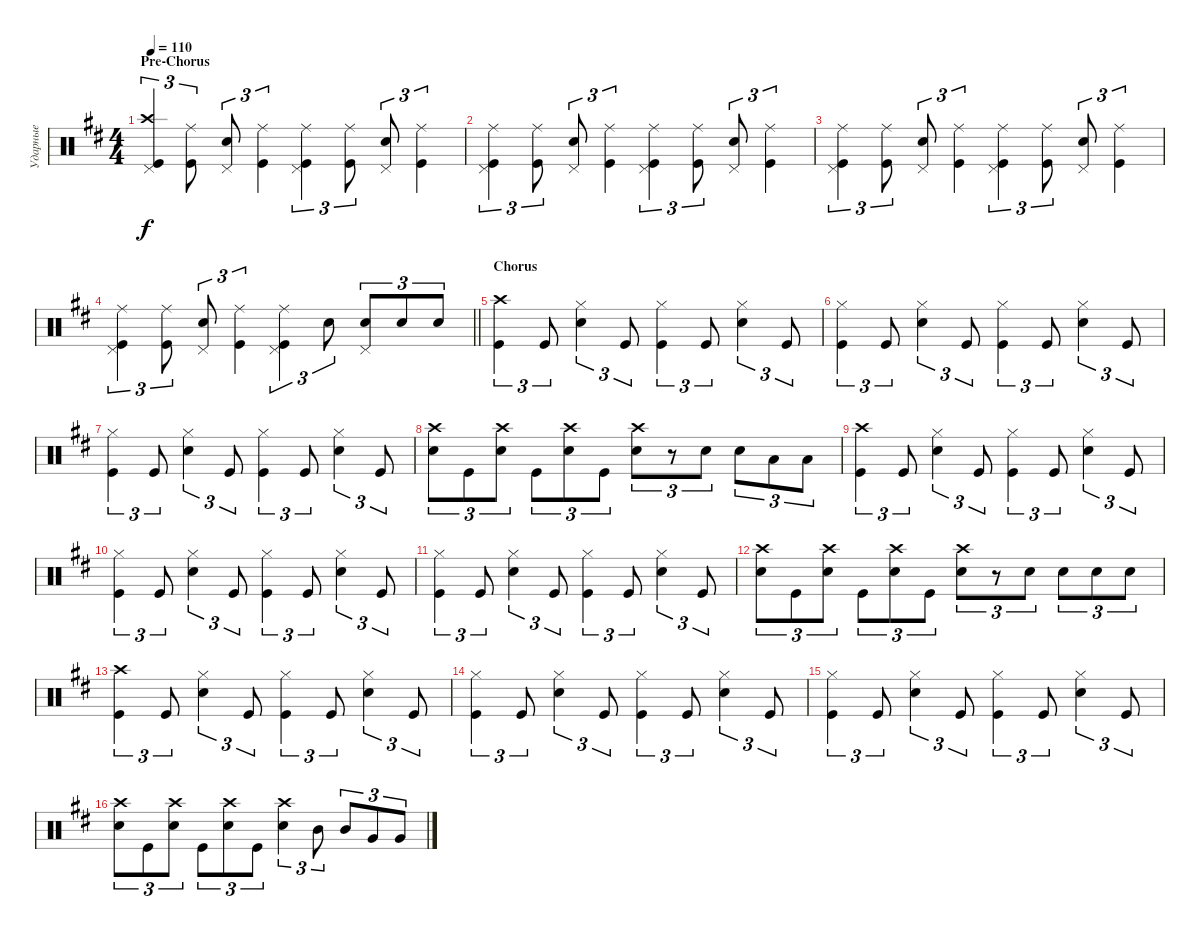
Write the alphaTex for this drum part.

\track ("Ударные" "Ударные") {instrument percussion}
\staff {score}
\articulation defaults
\ts (4 4)
\section ("" "Pre-Chorus")
\tempo 110
\clef neutral
\ks bminor
("Kick (hit)" "Crash high (hit)" "Pedal Hi-Hat (hit)").4{tu (3 2) dy f} ("Kick (hit)" "Ride (middle)").8{tu (3 2)} ("Snare (hit) 2" "Pedal Hi-Hat (hit)").8{tu (3 2)} ("Kick (hit)" "Ride (middle)").4{tu (3 2)} ("Kick (hit)" "Ride (middle)" "Pedal Hi-Hat (hit)").4{tu (3 2)} ("Kick (hit)" "Ride (middle)").8{tu (3 2)} ("Snare (hit) 2" "Pedal Hi-Hat (hit)").8{tu (3 2)} ("Kick (hit)" "Ride (middle)").4{tu (3 2)} |
("Kick (hit)" "Ride (middle)" "Pedal Hi-Hat (hit)").4{tu (3 2)} ("Kick (hit)" "Ride (middle)").8{tu (3 2)} ("Snare (hit) 2" "Pedal Hi-Hat (hit)").8{tu (3 2)} ("Kick (hit)" "Ride (middle)").4{tu (3 2)} ("Kick (hit)" "Ride (middle)" "Pedal Hi-Hat (hit)").4{tu (3 2)} ("Kick (hit)" "Ride (middle)").8{tu (3 2)} ("Snare (hit) 2" "Pedal Hi-Hat (hit)").8{tu (3 2)} ("Kick (hit)" "Ride (middle)").4{tu (3 2)} |
("Kick (hit)" "Ride (middle)" "Pedal Hi-Hat (hit)").4{tu (3 2)} ("Kick (hit)" "Ride (middle)").8{tu (3 2)} ("Snare (hit) 2" "Pedal Hi-Hat (hit)").8{tu (3 2)} ("Kick (hit)" "Ride (middle)").4{tu (3 2)} ("Kick (hit)" "Ride (middle)" "Pedal Hi-Hat (hit)").4{tu (3 2)} ("Kick (hit)" "Ride (middle)").8{tu (3 2)} ("Snare (hit) 2" "Pedal Hi-Hat (hit)").8{tu (3 2)} ("Kick (hit)" "Ride (middle)").4{tu (3 2)} |
\barLineRight lightlight
("Kick (hit)" "Ride (middle)" "Pedal Hi-Hat (hit)").4{tu (3 2)} ("Kick (hit)" "Ride (middle)").8{tu (3 2)} ("Snare (hit) 2" "Pedal Hi-Hat (hit)").8{tu (3 2)} ("Kick (hit)" "Ride (middle)").4{tu (3 2)} ("Kick (hit)" "Ride (middle)" "Pedal Hi-Hat (hit)").4{tu (3 2)} "Snare (hit) 2".8{tu (3 2)} ("Snare (hit) 2" "Pedal Hi-Hat (hit)").8{tu (3 2)} "Snare (hit) 2".8{tu (3 2)} "Snare (hit) 2".8{tu (3 2)} |
\section ("" "Chorus")
("Kick (hit)" "Crash high (hit)").4{tu (3 2)} "Kick (hit)".8{tu (3 2)} ("Snare (hit) 2" "Hi-Hat (closed)").4{tu (3 2)} "Kick (hit)".8{tu (3 2)} ("Kick (hit)" "Hi-Hat (closed)").4{tu (3 2)} "Kick (hit)".8{tu (3 2)} ("Snare (hit) 2" "Hi-Hat (closed)").4{tu (3 2)} "Kick (hit)".8{tu (3 2)} |
("Kick (hit)" "Hi-Hat (closed)").4{tu (3 2)} "Kick (hit)".8{tu (3 2)} ("Snare (hit) 2" "Hi-Hat (closed)").4{tu (3 2)} "Kick (hit)".8{tu (3 2)} ("Kick (hit)" "Hi-Hat (closed)").4{tu (3 2)} "Kick (hit)".8{tu (3 2)} ("Snare (hit) 2" "Hi-Hat (closed)").4{tu (3 2)} "Kick (hit)".8{tu (3 2)} |
("Kick (hit)" "Hi-Hat (closed)").4{tu (3 2)} "Kick (hit)".8{tu (3 2)} ("Snare (hit) 2" "Hi-Hat (closed)").4{tu (3 2)} "Kick (hit)".8{tu (3 2)} ("Kick (hit)" "Hi-Hat (closed)").4{tu (3 2)} "Kick (hit)".8{tu (3 2)} ("Snare (hit) 2" "Hi-Hat (closed)").4{tu (3 2)} "Kick (hit)".8{tu (3 2)} |
("Snare (hit) 2" "Crash high (hit)").8{tu (3 2)} "Kick (hit)".8{tu (3 2)} ("Snare (hit) 2" "Crash high (hit)").8{tu (3 2)} "Kick (hit)".8{tu (3 2)} ("Snare (hit) 2" "Crash high (hit)").8{tu (3 2)} "Kick (hit)".8{tu (3 2)} ("Snare (hit) 2" "Crash high (hit)").8{tu (3 2)} r.8{tu (3 2)} "Snare (hit) 2".8{tu (3 2)} "Snare (hit) 2".8{tu (3 2)} "Low Tom (hit)".8{tu (3 2)} "Low Tom (hit)".8{tu (3 2)} |
("Kick (hit)" "Crash high (hit)").4{tu (3 2)} "Kick (hit)".8{tu (3 2)} ("Snare (hit) 2" "Hi-Hat (closed)").4{tu (3 2)} "Kick (hit)".8{tu (3 2)} ("Kick (hit)" "Hi-Hat (closed)").4{tu (3 2)} "Kick (hit)".8{tu (3 2)} ("Snare (hit) 2" "Hi-Hat (closed)").4{tu (3 2)} "Kick (hit)".8{tu (3 2)} |
("Kick (hit)" "Hi-Hat (closed)").4{tu (3 2)} "Kick (hit)".8{tu (3 2)} ("Snare (hit) 2" "Hi-Hat (closed)").4{tu (3 2)} "Kick (hit)".8{tu (3 2)} ("Kick (hit)" "Hi-Hat (closed)").4{tu (3 2)} "Kick (hit)".8{tu (3 2)} ("Snare (hit) 2" "Hi-Hat (closed)").4{tu (3 2)} "Kick (hit)".8{tu (3 2)} |
("Kick (hit)" "Hi-Hat (closed)").4{tu (3 2)} "Kick (hit)".8{tu (3 2)} ("Snare (hit) 2" "Hi-Hat (closed)").4{tu (3 2)} "Kick (hit)".8{tu (3 2)} ("Kick (hit)" "Hi-Hat (closed)").4{tu (3 2)} "Kick (hit)".8{tu (3 2)} ("Snare (hit) 2" "Hi-Hat (closed)").4{tu (3 2)} "Kick (hit)".8{tu (3 2)} |
("Snare (hit) 2" "Crash high (hit)").8{tu (3 2)} "Kick (hit)".8{tu (3 2)} ("Snare (hit) 2" "Crash high (hit)").8{tu (3 2)} "Kick (hit)".8{tu (3 2)} ("Snare (hit) 2" "Crash high (hit)").8{tu (3 2)} "Kick (hit)".8{tu (3 2)} ("Snare (hit) 2" "Crash high (hit)").8{tu (3 2)} r.8{tu (3 2)} "Snare (hit) 2".8{tu (3 2)} "Snare (hit) 2".8{tu (3 2)} "Snare (hit) 2".8{tu (3 2)} "Snare (hit) 2".8{tu (3 2)} |
("Kick (hit)" "Crash high (hit)").4{tu (3 2)} "Kick (hit)".8{tu (3 2)} ("Snare (hit) 2" "Hi-Hat (closed)").4{tu (3 2)} "Kick (hit)".8{tu (3 2)} ("Kick (hit)" "Hi-Hat (closed)").4{tu (3 2)} "Kick (hit)".8{tu (3 2)} ("Snare (hit) 2" "Hi-Hat (closed)").4{tu (3 2)} "Kick (hit)".8{tu (3 2)} |
("Kick (hit)" "Hi-Hat (closed)").4{tu (3 2)} "Kick (hit)".8{tu (3 2)} ("Snare (hit) 2" "Hi-Hat (closed)").4{tu (3 2)} "Kick (hit)".8{tu (3 2)} ("Kick (hit)" "Hi-Hat (closed)").4{tu (3 2)} "Kick (hit)".8{tu (3 2)} ("Snare (hit) 2" "Hi-Hat (closed)").4{tu (3 2)} "Kick (hit)".8{tu (3 2)} |
("Kick (hit)" "Hi-Hat (closed)").4{tu (3 2)} "Kick (hit)".8{tu (3 2)} ("Snare (hit) 2" "Hi-Hat (closed)").4{tu (3 2)} "Kick (hit)".8{tu (3 2)} ("Kick (hit)" "Hi-Hat (closed)").4{tu (3 2)} "Kick (hit)".8{tu (3 2)} ("Snare (hit) 2" "Hi-Hat (closed)").4{tu (3 2)} "Kick (hit)".8{tu (3 2)} |
("Snare (hit) 2" "Crash high (hit)").8{tu (3 2)} "Kick (hit)".8{tu (3 2)} ("Snare (hit) 2" "Crash high (hit)").8{tu (3 2)} "Kick (hit)".8{tu (3 2)} ("Snare (hit) 2" "Crash high (hit)").8{tu (3 2)} "Kick (hit)".8{tu (3 2)} ("Snare (hit) 2" "Crash high (hit)").4{tu (3 2)} "Mid Tom (hit)".8{tu (3 2)} "Mid Tom (hit)".8{tu (3 2)} "Very Low Tom (hit)".8{tu (3 2)} "Very Low Tom (hit)".8{tu (3 2)}
